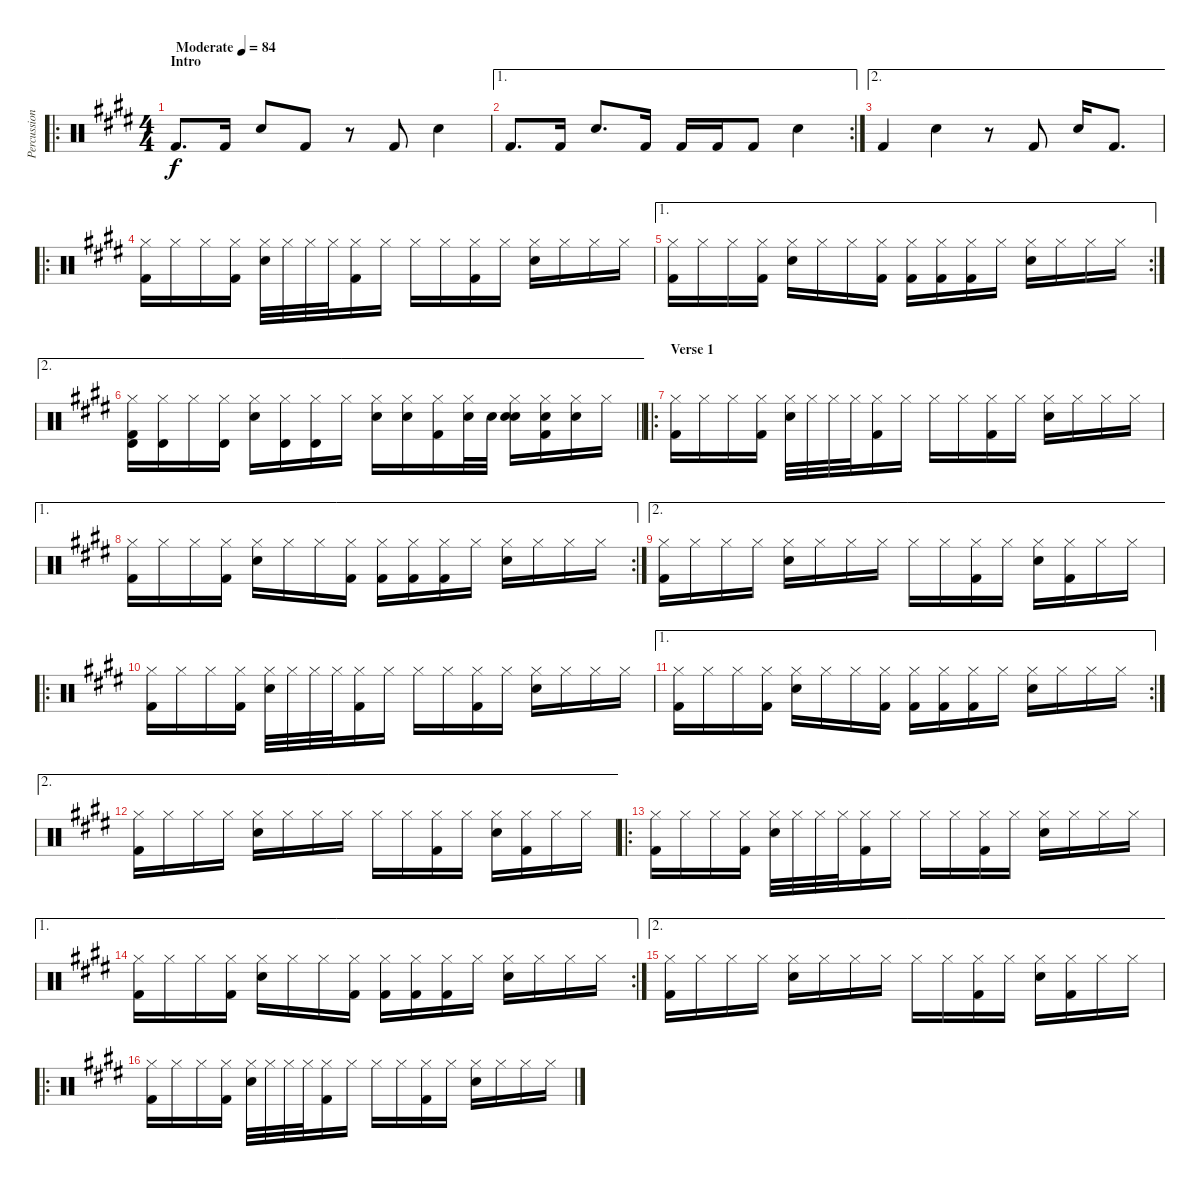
\track ("Percussion" "Percussion") {instrument percussion}
\staff {score}
\articulation defaults
\ro
\ts (4 4)
\section ("" "Intro")
\tempo (84 "Moderate")
\clef neutral
\ks e "Kick (hit) 2".8{d dy f} "Kick (hit) 2".16 "Hand Clap (hit)".8 "Kick (hit) 2".8
r.8 "Kick (hit) 2".8 "Hand Clap (hit)".4 |
\ae 1
\rc 2 "Kick (hit) 2".8{d} "Kick (hit) 2".16 "Hand Clap (hit)".8{d} "Kick (hit) 2".16 "Kick (hit) 2".16 "Kick (hit) 2".16 "Kick (hit) 2".8 "Hand Clap (hit)".4
|
\ae 2 "Kick (hit) 2".4 "Hand Clap (hit)".4
r.8 "Kick (hit) 2".8 "Hand Clap (hit)".16 "Kick (hit) 2".8{d} |
\ro
("Hi-Hat (closed)" "Kick (hit) 2").16 "Hi-Hat (closed)".16 "Hi-Hat (closed)".16 ("Hi-Hat (closed)" "Kick (hit) 2").16 ("Hi-Hat (closed)" "Hand Clap (hit)").32 "Hi-Hat (closed)".32 "Hi-Hat (closed)".32 "Hi-Hat (closed)".32 ("Hi-Hat (closed)" "Kick (hit) 2").16 "Hi-Hat (closed)".16 "Hi-Hat (closed)".16 "Hi-Hat (closed)".16 ("Hi-Hat (closed)" "Kick (hit) 2").16 "Hi-Hat (closed)".16 ("Hi-Hat (closed)" "Hand Clap (hit)").16 "Hi-Hat (closed)".16 "Hi-Hat (closed)".16 "Hi-Hat (closed)".16 |
\ae 1
\rc 2
("Hi-Hat (closed)" "Kick (hit) 2").16 "Hi-Hat (closed)".16 "Hi-Hat (closed)".16 ("Hi-Hat (closed)" "Kick (hit) 2").16 ("Hi-Hat (closed)" "Hand Clap (hit)").16 "Hi-Hat (closed)".16 "Hi-Hat (closed)".16 ("Hi-Hat (closed)" "Kick (hit) 2").16 ("Hi-Hat (closed)" "Kick (hit) 2").16 ("Hi-Hat (closed)" "Kick (hit) 2").16 ("Hi-Hat (closed)" "Kick (hit) 2").16 "Hi-Hat (closed)".16 ("Hi-Hat (closed)" "Hand Clap (hit)").16 "Hi-Hat (closed)".16 "Hi-Hat (closed)".16 "Hi-Hat (closed)".16 |
\ae 2
\barLineRight lightlight
("Hi-Hat (closed)" "Timbale high (hit)" "Kick (hit) 2").16 ("Hi-Hat (closed)" "Timbale high (hit)").16 "Hi-Hat (closed)".16 ("Hi-Hat (closed)" "Timbale high (hit)").16 ("Hi-Hat (closed)" "Hand Clap (hit)").16 ("Hi-Hat (closed)" "Timbale high (hit)").16 ("Hi-Hat (closed)" "Timbale high (hit)").16 "Hi-Hat (closed)".16 ("Hi-Hat (closed)" "Snare (hit) 2").16 ("Hi-Hat (closed)" "Snare (hit) 2").16 ("Hi-Hat (closed)" "Kick (hit) 2").16 ("Hi-Hat (closed)" "Snare (hit) 2").32 "Snare (hit) 2".32 ("Hi-Hat (closed)" "Snare (hit) 2" "Hand Clap (hit)").16 ("Hi-Hat (closed)" "Snare (hit) 2" "Kick (hit) 2").16 ("Hi-Hat (closed)" "Snare (hit) 2").16 "Hi-Hat (closed)".16 |
\ro
\section ("" "Verse 1")
("Hi-Hat (closed)" "Kick (hit) 2").16 "Hi-Hat (closed)".16 "Hi-Hat (closed)".16 ("Hi-Hat (closed)" "Kick (hit) 2").16 ("Hi-Hat (closed)" "Hand Clap (hit)").32 "Hi-Hat (closed)".32 "Hi-Hat (closed)".32 "Hi-Hat (closed)".32 ("Hi-Hat (closed)" "Kick (hit) 2").16 "Hi-Hat (closed)".16 "Hi-Hat (closed)".16 "Hi-Hat (closed)".16 ("Hi-Hat (closed)" "Kick (hit) 2").16 "Hi-Hat (closed)".16 ("Hi-Hat (closed)" "Hand Clap (hit)").16 "Hi-Hat (closed)".16 "Hi-Hat (closed)".16 "Hi-Hat (closed)".16 |
\ae 1
\rc 2
("Hi-Hat (closed)" "Kick (hit) 2").16 "Hi-Hat (closed)".16 "Hi-Hat (closed)".16 ("Hi-Hat (closed)" "Kick (hit) 2").16 ("Hi-Hat (closed)" "Hand Clap (hit)").16 "Hi-Hat (closed)".16 "Hi-Hat (closed)".16 ("Hi-Hat (closed)" "Kick (hit) 2").16 ("Hi-Hat (closed)" "Kick (hit) 2").16 ("Hi-Hat (closed)" "Kick (hit) 2").16 ("Hi-Hat (closed)" "Kick (hit) 2").16 "Hi-Hat (closed)".16 ("Hi-Hat (closed)" "Hand Clap (hit)").16 "Hi-Hat (closed)".16 "Hi-Hat (closed)".16 "Hi-Hat (closed)".16 |
\ae 2
("Hi-Hat (closed)" "Kick (hit) 2").16 "Hi-Hat (closed)".16 "Hi-Hat (closed)".16 "Hi-Hat (closed)".16 ("Hi-Hat (closed)" "Hand Clap (hit)").16 "Hi-Hat (closed)".16 "Hi-Hat (closed)".16 "Hi-Hat (closed)".16 "Hi-Hat (closed)".16 "Hi-Hat (closed)".16 ("Hi-Hat (closed)" "Kick (hit) 2").16 "Hi-Hat (closed)".16 ("Hi-Hat (closed)" "Hand Clap (hit)").16 ("Hi-Hat (closed)" "Kick (hit) 2").16 "Hi-Hat (closed)".16 "Hi-Hat (closed)".16 |
\ro
("Hi-Hat (closed)" "Kick (hit) 2").16 "Hi-Hat (closed)".16 "Hi-Hat (closed)".16 ("Hi-Hat (closed)" "Kick (hit) 2").16 ("Hi-Hat (closed)" "Hand Clap (hit)").32 "Hi-Hat (closed)".32 "Hi-Hat (closed)".32 "Hi-Hat (closed)".32 ("Hi-Hat (closed)" "Kick (hit) 2").16 "Hi-Hat (closed)".16 "Hi-Hat (closed)".16 "Hi-Hat (closed)".16 ("Hi-Hat (closed)" "Kick (hit) 2").16 "Hi-Hat (closed)".16 ("Hi-Hat (closed)" "Hand Clap (hit)").16 "Hi-Hat (closed)".16 "Hi-Hat (closed)".16 "Hi-Hat (closed)".16 |
\ae 1
\rc 2
("Hi-Hat (closed)" "Kick (hit) 2").16 "Hi-Hat (closed)".16 "Hi-Hat (closed)".16 ("Hi-Hat (closed)" "Kick (hit) 2").16 ("Hi-Hat (closed)" "Hand Clap (hit)").16 "Hi-Hat (closed)".16 "Hi-Hat (closed)".16 ("Hi-Hat (closed)" "Kick (hit) 2").16 ("Hi-Hat (closed)" "Kick (hit) 2").16 ("Hi-Hat (closed)" "Kick (hit) 2").16 ("Hi-Hat (closed)" "Kick (hit) 2").16 "Hi-Hat (closed)".16 ("Hi-Hat (closed)" "Hand Clap (hit)").16 "Hi-Hat (closed)".16 "Hi-Hat (closed)".16 "Hi-Hat (closed)".16 |
\ae 2
("Hi-Hat (closed)" "Kick (hit) 2").16 "Hi-Hat (closed)".16 "Hi-Hat (closed)".16 "Hi-Hat (closed)".16 ("Hi-Hat (closed)" "Hand Clap (hit)").16 "Hi-Hat (closed)".16 "Hi-Hat (closed)".16 "Hi-Hat (closed)".16 "Hi-Hat (closed)".16 "Hi-Hat (closed)".16 ("Hi-Hat (closed)" "Kick (hit) 2").16 "Hi-Hat (closed)".16 ("Hi-Hat (closed)" "Hand Clap (hit)").16 ("Hi-Hat (closed)" "Kick (hit) 2").16 "Hi-Hat (closed)".16 "Hi-Hat (closed)".16 |
\ro
("Hi-Hat (closed)" "Kick (hit) 2").16 "Hi-Hat (closed)".16 "Hi-Hat (closed)".16 ("Hi-Hat (closed)" "Kick (hit) 2").16 ("Hi-Hat (closed)" "Hand Clap (hit)").32 "Hi-Hat (closed)".32 "Hi-Hat (closed)".32 "Hi-Hat (closed)".32 ("Hi-Hat (closed)" "Kick (hit) 2").16 "Hi-Hat (closed)".16 "Hi-Hat (closed)".16 "Hi-Hat (closed)".16 ("Hi-Hat (closed)" "Kick (hit) 2").16 "Hi-Hat (closed)".16 ("Hi-Hat (closed)" "Hand Clap (hit)").16 "Hi-Hat (closed)".16 "Hi-Hat (closed)".16 "Hi-Hat (closed)".16 |
\ae 1
\rc 2
("Hi-Hat (closed)" "Kick (hit) 2").16 "Hi-Hat (closed)".16 "Hi-Hat (closed)".16 ("Hi-Hat (closed)" "Kick (hit) 2").16 ("Hi-Hat (closed)" "Hand Clap (hit)").16 "Hi-Hat (closed)".16 "Hi-Hat (closed)".16 ("Hi-Hat (closed)" "Kick (hit) 2").16 ("Hi-Hat (closed)" "Kick (hit) 2").16 ("Hi-Hat (closed)" "Kick (hit) 2").16 ("Hi-Hat (closed)" "Kick (hit) 2").16 "Hi-Hat (closed)".16 ("Hi-Hat (closed)" "Hand Clap (hit)").16 "Hi-Hat (closed)".16 "Hi-Hat (closed)".16 "Hi-Hat (closed)".16 |
\ae 2
("Hi-Hat (closed)" "Kick (hit) 2").16 "Hi-Hat (closed)".16 "Hi-Hat (closed)".16 "Hi-Hat (closed)".16 ("Hi-Hat (closed)" "Hand Clap (hit)").16 "Hi-Hat (closed)".16 "Hi-Hat (closed)".16 "Hi-Hat (closed)".16 "Hi-Hat (closed)".16 "Hi-Hat (closed)".16 ("Hi-Hat (closed)" "Kick (hit) 2").16 "Hi-Hat (closed)".16 ("Hi-Hat (closed)" "Hand Clap (hit)").16 ("Hi-Hat (closed)" "Kick (hit) 2").16 "Hi-Hat (closed)".16 "Hi-Hat (closed)".16 |
\ro
("Hi-Hat (closed)" "Kick (hit) 2").16 "Hi-Hat (closed)".16 "Hi-Hat (closed)".16 ("Hi-Hat (closed)" "Kick (hit) 2").16 ("Hi-Hat (closed)" "Hand Clap (hit)").32 "Hi-Hat (closed)".32 "Hi-Hat (closed)".32 "Hi-Hat (closed)".32 ("Hi-Hat (closed)" "Kick (hit) 2").16 "Hi-Hat (closed)".16 "Hi-Hat (closed)".16 "Hi-Hat (closed)".16 ("Hi-Hat (closed)" "Kick (hit) 2").16 "Hi-Hat (closed)".16 ("Hi-Hat (closed)" "Hand Clap (hit)").16 "Hi-Hat (closed)".16 "Hi-Hat (closed)".16 "Hi-Hat (closed)".16
